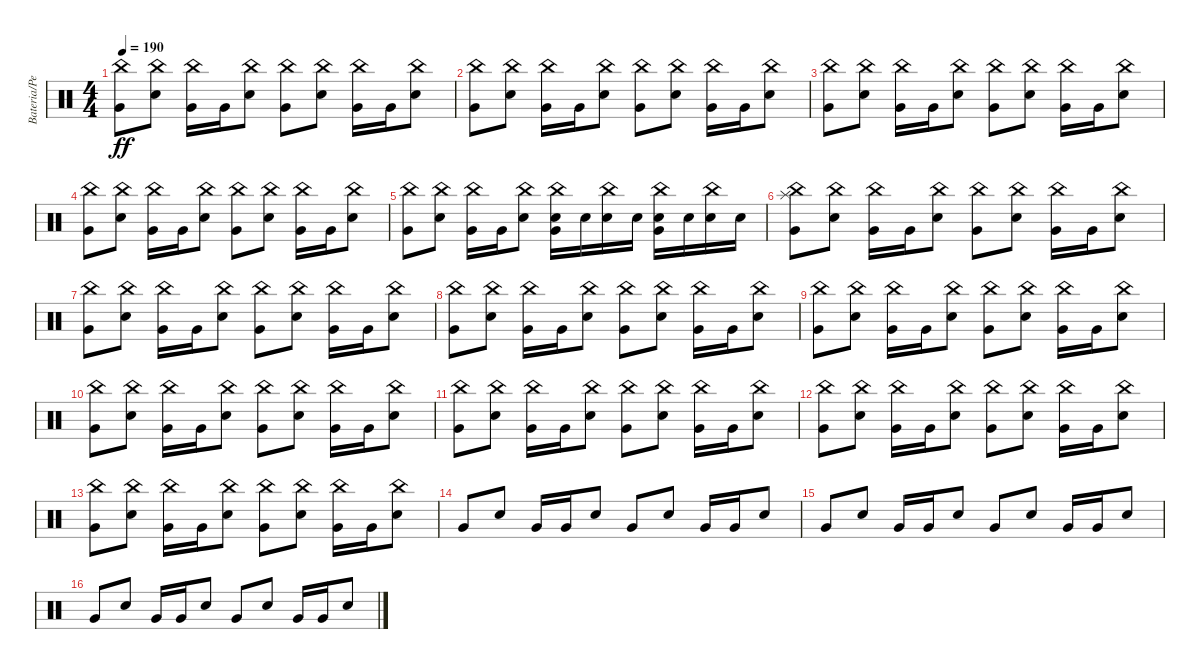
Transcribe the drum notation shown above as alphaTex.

\track ("Bateria/Percussion" "Bateria/Pe") {instrument percussion}
\staff {score}
\articulation defaults
\ts (4 4)
\tempo 190
\clef neutral
\ks c
("Very Low Tom (hit)" "China (hit)").8{dy ff} ("Electric Snare (hit)" "China (hit)").8 ("Very Low Tom (hit)" "China (hit)").16 "Very Low Tom (hit)".16 ("Electric Snare (hit)" "China (hit)").8 ("Very Low Tom (hit)" "China (hit)").8 ("Electric Snare (hit)" "China (hit)").8 ("Very Low Tom (hit)" "China (hit)").16 "Very Low Tom (hit)".16 ("Electric Snare (hit)" "China (hit)").8 |
("Very Low Tom (hit)" "China (hit)").8 ("Electric Snare (hit)" "China (hit)").8 ("Very Low Tom (hit)" "China (hit)").16 "Very Low Tom (hit)".16 ("Electric Snare (hit)" "China (hit)").8 ("Very Low Tom (hit)" "China (hit)").8 ("Electric Snare (hit)" "China (hit)").8 ("Very Low Tom (hit)" "China (hit)").16 "Very Low Tom (hit)".16 ("Electric Snare (hit)" "China (hit)").8 |
("Very Low Tom (hit)" "China (hit)").8 ("Electric Snare (hit)" "China (hit)").8 ("Very Low Tom (hit)" "China (hit)").16 "Very Low Tom (hit)".16 ("Electric Snare (hit)" "China (hit)").8 ("Very Low Tom (hit)" "China (hit)").8 ("Electric Snare (hit)" "China (hit)").8 ("Very Low Tom (hit)" "China (hit)").16 "Very Low Tom (hit)".16 ("Electric Snare (hit)" "China (hit)").8 |
("Very Low Tom (hit)" "China (hit)").8 ("Electric Snare (hit)" "China (hit)").8 ("Very Low Tom (hit)" "China (hit)").16 "Very Low Tom (hit)".16 ("Electric Snare (hit)" "China (hit)").8 ("Very Low Tom (hit)" "China (hit)").8 ("Electric Snare (hit)" "China (hit)").8 ("Very Low Tom (hit)" "China (hit)").16 "Very Low Tom (hit)".16 ("Electric Snare (hit)" "China (hit)").8 |
("Very Low Tom (hit)" "China (hit)").8 ("Electric Snare (hit)" "China (hit)").8 ("Very Low Tom (hit)" "China (hit)").16 "Very Low Tom (hit)".16 ("Electric Snare (hit)" "China (hit)").8 ("Snare (hit) 2" "Very Low Tom (hit)" "China (hit)").16 "Snare (hit) 2".16 ("Snare (hit) 2" "China (hit)").16 "Snare (hit) 2".16 ("Snare (hit) 2" "Very Low Tom (hit)" "China (hit)").16 "Snare (hit) 2".16 ("Snare (hit) 2" "China (hit)").16 "Snare (hit) 2".16 |
("Very Low Tom (hit)" "Splash (hit)" "China (hit)").8 ("Electric Snare (hit)" "China (hit)").8 ("Very Low Tom (hit)" "China (hit)").16 "Very Low Tom (hit)".16 ("Electric Snare (hit)" "China (hit)").8 ("Very Low Tom (hit)" "China (hit)").8 ("Electric Snare (hit)" "China (hit)").8 ("Very Low Tom (hit)" "China (hit)").16 "Very Low Tom (hit)".16 ("Electric Snare (hit)" "China (hit)").8 |
("Very Low Tom (hit)" "China (hit)").8 ("Electric Snare (hit)" "China (hit)").8 ("Very Low Tom (hit)" "China (hit)").16 "Very Low Tom (hit)".16 ("Electric Snare (hit)" "China (hit)").8 ("Very Low Tom (hit)" "China (hit)").8 ("Electric Snare (hit)" "China (hit)").8 ("Very Low Tom (hit)" "China (hit)").16 "Very Low Tom (hit)".16 ("Electric Snare (hit)" "China (hit)").8 |
("Very Low Tom (hit)" "China (hit)").8 ("Electric Snare (hit)" "China (hit)").8 ("Very Low Tom (hit)" "China (hit)").16 "Very Low Tom (hit)".16 ("Electric Snare (hit)" "China (hit)").8 ("Very Low Tom (hit)" "China (hit)").8 ("Electric Snare (hit)" "China (hit)").8 ("Very Low Tom (hit)" "China (hit)").16 "Very Low Tom (hit)".16 ("Electric Snare (hit)" "China (hit)").8 |
("Very Low Tom (hit)" "China (hit)").8 ("Electric Snare (hit)" "China (hit)").8 ("Very Low Tom (hit)" "China (hit)").16 "Very Low Tom (hit)".16 ("Electric Snare (hit)" "China (hit)").8 ("Very Low Tom (hit)" "China (hit)").8 ("Electric Snare (hit)" "China (hit)").8 ("Very Low Tom (hit)" "China (hit)").16 "Very Low Tom (hit)".16 ("Electric Snare (hit)" "China (hit)").8 |
("Very Low Tom (hit)" "China (hit)").8 ("Electric Snare (hit)" "China (hit)").8 ("Very Low Tom (hit)" "China (hit)").16 "Very Low Tom (hit)".16 ("Electric Snare (hit)" "China (hit)").8 ("Very Low Tom (hit)" "China (hit)").8 ("Electric Snare (hit)" "China (hit)").8 ("Very Low Tom (hit)" "China (hit)").16 "Very Low Tom (hit)".16 ("Electric Snare (hit)" "China (hit)").8 |
("Very Low Tom (hit)" "China (hit)").8 ("Electric Snare (hit)" "China (hit)").8 ("Very Low Tom (hit)" "China (hit)").16 "Very Low Tom (hit)".16 ("Electric Snare (hit)" "China (hit)").8 ("Very Low Tom (hit)" "China (hit)").8 ("Electric Snare (hit)" "China (hit)").8 ("Very Low Tom (hit)" "China (hit)").16 "Very Low Tom (hit)".16 ("Electric Snare (hit)" "China (hit)").8 |
("Very Low Tom (hit)" "China (hit)").8 ("Electric Snare (hit)" "China (hit)").8 ("Very Low Tom (hit)" "China (hit)").16 "Very Low Tom (hit)".16 ("Electric Snare (hit)" "China (hit)").8 ("Very Low Tom (hit)" "China (hit)").8 ("Electric Snare (hit)" "China (hit)").8 ("Very Low Tom (hit)" "China (hit)").16 "Very Low Tom (hit)".16 ("Electric Snare (hit)" "China (hit)").8 |
("Very Low Tom (hit)" "China (hit)").8 ("Electric Snare (hit)" "China (hit)").8 ("Very Low Tom (hit)" "China (hit)").16 "Very Low Tom (hit)".16 ("Electric Snare (hit)" "China (hit)").8 ("Very Low Tom (hit)" "China (hit)").8 ("Electric Snare (hit)" "China (hit)").8 ("Very Low Tom (hit)" "China (hit)").16 "Very Low Tom (hit)".16 ("Electric Snare (hit)" "China (hit)").8 |
"Very Low Tom (hit)".8 "Electric Snare (hit)".8 "Very Low Tom (hit)".16 "Very Low Tom (hit)".16 "Electric Snare (hit)".8 "Very Low Tom (hit)".8 "Electric Snare (hit)".8 "Very Low Tom (hit)".16 "Very Low Tom (hit)".16 "Electric Snare (hit)".8 |
"Very Low Tom (hit)".8 "Electric Snare (hit)".8 "Very Low Tom (hit)".16 "Very Low Tom (hit)".16 "Electric Snare (hit)".8 "Very Low Tom (hit)".8 "Electric Snare (hit)".8 "Very Low Tom (hit)".16 "Very Low Tom (hit)".16 "Electric Snare (hit)".8 |
"Very Low Tom (hit)".8 "Electric Snare (hit)".8 "Very Low Tom (hit)".16 "Very Low Tom (hit)".16 "Electric Snare (hit)".8 "Very Low Tom (hit)".8 "Electric Snare (hit)".8 "Very Low Tom (hit)".16 "Very Low Tom (hit)".16 "Electric Snare (hit)".8
